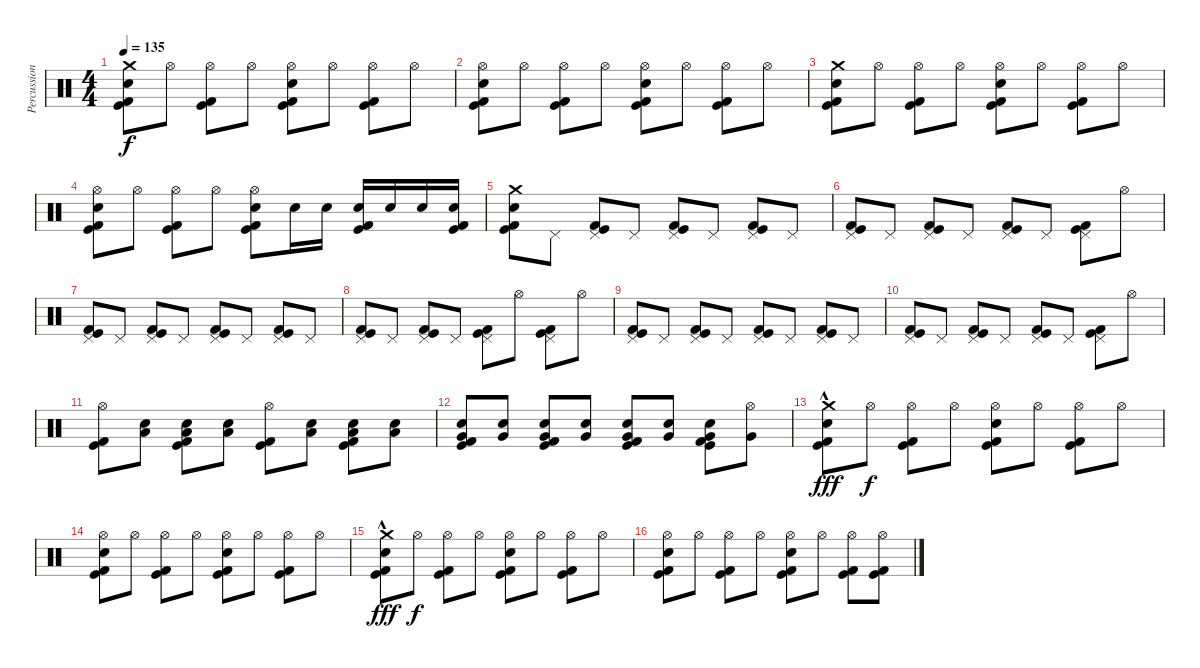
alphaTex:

\track ("Percussions" "Percussion") {instrument percussion}
\staff {score}
\articulation defaults
\ts (4 4)
\tempo 135
\clef neutral
\ks c
("Crash medium (hit)" "Electric Snare (hit)" "Kick (hit)" "Kick (hit) 2").8{dy f} "Hi-Hat (open)".8 ("Hi-Hat (open)" "Kick (hit)" "Kick (hit) 2").8 "Hi-Hat (open)".8 ("Hi-Hat (open)" "Electric Snare (hit)" "Kick (hit)" "Kick (hit) 2").8 "Hi-Hat (open)".8 ("Hi-Hat (open)" "Kick (hit)" "Kick (hit) 2").8 "Hi-Hat (open)".8 |
("Hi-Hat (open)" "Electric Snare (hit)" "Kick (hit)" "Kick (hit) 2").8 "Hi-Hat (open)".8 ("Hi-Hat (open)" "Kick (hit)" "Kick (hit) 2").8 "Hi-Hat (open)".8 ("Hi-Hat (open)" "Electric Snare (hit)" "Kick (hit) 2" "Kick (hit)").8 "Hi-Hat (open)".8 ("Hi-Hat (open)" "Kick (hit)" "Kick (hit) 2").8 "Hi-Hat (open)".8 |
("Crash medium (hit)" "Electric Snare (hit)" "Kick (hit)" "Kick (hit) 2").8 "Hi-Hat (open)".8 ("Hi-Hat (open)" "Kick (hit)" "Kick (hit) 2").8 "Hi-Hat (open)".8 ("Hi-Hat (open)" "Electric Snare (hit)" "Kick (hit)" "Kick (hit) 2").8 "Hi-Hat (open)".8 ("Hi-Hat (open)" "Kick (hit)" "Kick (hit) 2").8 "Hi-Hat (open)".8 |
("Hi-Hat (open)" "Electric Snare (hit)" "Kick (hit)" "Kick (hit) 2").8 "Hi-Hat (open)".8 ("Hi-Hat (open)" "Kick (hit)" "Kick (hit) 2").8 "Hi-Hat (open)".8 ("Hi-Hat (open)" "Electric Snare (hit)" "Kick (hit) 2" "Kick (hit)").8 "Electric Snare (hit)".16 "Electric Snare (hit)".16 ("Electric Snare (hit)" "Kick (hit)" "Kick (hit) 2").16 "Electric Snare (hit)".16 "Electric Snare (hit)".16 ("Electric Snare (hit)" "Kick (hit)" "Kick (hit) 2").16 |
("Crash medium (hit)" "Electric Snare (hit)" "Kick (hit)" "Kick (hit) 2").8 "Pedal Hi-Hat (hit)".8 ("Pedal Hi-Hat (hit)" "Kick (hit) 2" "Kick (hit)").8 "Pedal Hi-Hat (hit)".8 ("Pedal Hi-Hat (hit)" "Kick (hit)" "Kick (hit) 2").8 "Pedal Hi-Hat (hit)".8 ("Pedal Hi-Hat (hit)" "Kick (hit) 2" "Kick (hit)").8 "Pedal Hi-Hat (hit)".8 |
("Pedal Hi-Hat (hit)" "Kick (hit)" "Kick (hit) 2").8 "Pedal Hi-Hat (hit)".8 ("Pedal Hi-Hat (hit)" "Kick (hit) 2" "Kick (hit)").8 "Pedal Hi-Hat (hit)".8 ("Pedal Hi-Hat (hit)" "Kick (hit)" "Kick (hit) 2").8 "Pedal Hi-Hat (hit)".8 ("Pedal Hi-Hat (hit)" "Kick (hit) 2" "Kick (hit)").8 "Hi-Hat (open)".8 |
("Pedal Hi-Hat (hit)" "Kick (hit)" "Kick (hit) 2").8 "Pedal Hi-Hat (hit)".8 ("Pedal Hi-Hat (hit)" "Kick (hit) 2" "Kick (hit)").8 "Pedal Hi-Hat (hit)".8 ("Pedal Hi-Hat (hit)" "Kick (hit)" "Kick (hit) 2").8 "Pedal Hi-Hat (hit)".8 ("Pedal Hi-Hat (hit)" "Kick (hit) 2" "Kick (hit)").8 "Pedal Hi-Hat (hit)".8 |
("Pedal Hi-Hat (hit)" "Kick (hit)" "Kick (hit) 2").8 "Pedal Hi-Hat (hit)".8 ("Pedal Hi-Hat (hit)" "Kick (hit) 2" "Kick (hit)").8 "Pedal Hi-Hat (hit)".8 ("Pedal Hi-Hat (hit)" "Kick (hit)" "Kick (hit) 2").8 "Hi-Hat (open)".8 ("Pedal Hi-Hat (hit)" "Kick (hit) 2" "Kick (hit)").8 "Hi-Hat (open)".8 |
("Pedal Hi-Hat (hit)" "Kick (hit)" "Kick (hit) 2").8 "Pedal Hi-Hat (hit)".8 ("Pedal Hi-Hat (hit)" "Kick (hit) 2" "Kick (hit)").8 "Pedal Hi-Hat (hit)".8 ("Pedal Hi-Hat (hit)" "Kick (hit)" "Kick (hit) 2").8 "Pedal Hi-Hat (hit)".8 ("Pedal Hi-Hat (hit)" "Kick (hit) 2" "Kick (hit)").8 "Pedal Hi-Hat (hit)".8 |
("Pedal Hi-Hat (hit)" "Kick (hit)" "Kick (hit) 2").8 "Pedal Hi-Hat (hit)".8 ("Pedal Hi-Hat (hit)" "Kick (hit) 2" "Kick (hit)").8 "Pedal Hi-Hat (hit)".8 ("Pedal Hi-Hat (hit)" "Kick (hit)" "Kick (hit) 2").8 "Pedal Hi-Hat (hit)".8 ("Pedal Hi-Hat (hit)" "Kick (hit) 2" "Kick (hit)").8 "Hi-Hat (open)".8 |
("Hi-Hat (open)" "Kick (hit)" "Kick (hit) 2").8 ("Low Tom (hit)" "Electric Snare (hit)").8 ("Low Tom (hit)" "Electric Snare (hit)" "Kick (hit) 2" "Kick (hit)").8 ("Low Tom (hit)" "Electric Snare (hit)").8 ("Hi-Hat (open)" "Kick (hit)" "Kick (hit) 2").8 ("Low Tom (hit)" "Electric Snare (hit)").8 ("Low Tom (hit)" "Electric Snare (hit)" "Kick (hit) 2" "Kick (hit)").8 ("Low Tom (hit)" "Electric Snare (hit)").8 |
("Electric Snare (hit)" "Very Low Tom (hit)" "Kick (hit)" "Kick (hit) 2").8 ("Electric Snare (hit)" "Very Low Tom (hit)").8 ("Electric Snare (hit)" "Very Low Tom (hit)" "Kick (hit) 2" "Kick (hit)").8 ("Electric Snare (hit)" "Very Low Tom (hit)").8 ("Electric Snare (hit)" "Very Low Tom (hit)" "Kick (hit)" "Kick (hit) 2").8 ("Electric Snare (hit)" "Very Low Tom (hit)").8 ("Electric Snare (hit)" "Very Low Tom (hit)" "Kick (hit) 2" "Kick (hit)").8 ("Hi-Hat (open)" "Very Low Tom (hit)").8 |
("Crash medium (hit)"{hac} "Electric Snare (hit)"{hac} "Kick (hit)"{hac} "Kick (hit) 2"{hac}).8{dy fff} "Hi-Hat (open)".8{dy f} ("Hi-Hat (open)" "Kick (hit)" "Kick (hit) 2").8 "Hi-Hat (open)".8 ("Hi-Hat (open)" "Electric Snare (hit)" "Kick (hit)" "Kick (hit) 2").8 "Hi-Hat (open)".8 ("Hi-Hat (open)" "Kick (hit)" "Kick (hit) 2").8 "Hi-Hat (open)".8 |
("Hi-Hat (open)" "Electric Snare (hit)" "Kick (hit)" "Kick (hit) 2").8 "Hi-Hat (open)".8 ("Hi-Hat (open)" "Kick (hit)" "Kick (hit) 2").8 "Hi-Hat (open)".8 ("Hi-Hat (open)" "Electric Snare (hit)" "Kick (hit) 2" "Kick (hit)").8 "Hi-Hat (open)".8 ("Hi-Hat (open)" "Kick (hit)" "Kick (hit) 2").8 "Hi-Hat (open)".8 |
("Crash medium (hit)"{hac} "Electric Snare (hit)"{hac} "Kick (hit)"{hac} "Kick (hit) 2"{hac}).8{dy fff} "Hi-Hat (open)".8{dy f} ("Hi-Hat (open)" "Kick (hit)" "Kick (hit) 2").8 "Hi-Hat (open)".8 ("Hi-Hat (open)" "Electric Snare (hit)" "Kick (hit)" "Kick (hit) 2").8 "Hi-Hat (open)".8 ("Hi-Hat (open)" "Kick (hit)" "Kick (hit) 2").8 "Hi-Hat (open)".8 |
("Hi-Hat (open)" "Electric Snare (hit)" "Kick (hit)" "Kick (hit) 2").8 "Hi-Hat (open)".8 ("Hi-Hat (open)" "Kick (hit)" "Kick (hit) 2").8 "Hi-Hat (open)".8 ("Hi-Hat (open)" "Electric Snare (hit)" "Kick (hit) 2" "Kick (hit)").8 "Hi-Hat (open)".8 ("Hi-Hat (open)" "Kick (hit)" "Kick (hit) 2").8 ("Hi-Hat (open)" "Kick (hit)" "Kick (hit) 2").8
